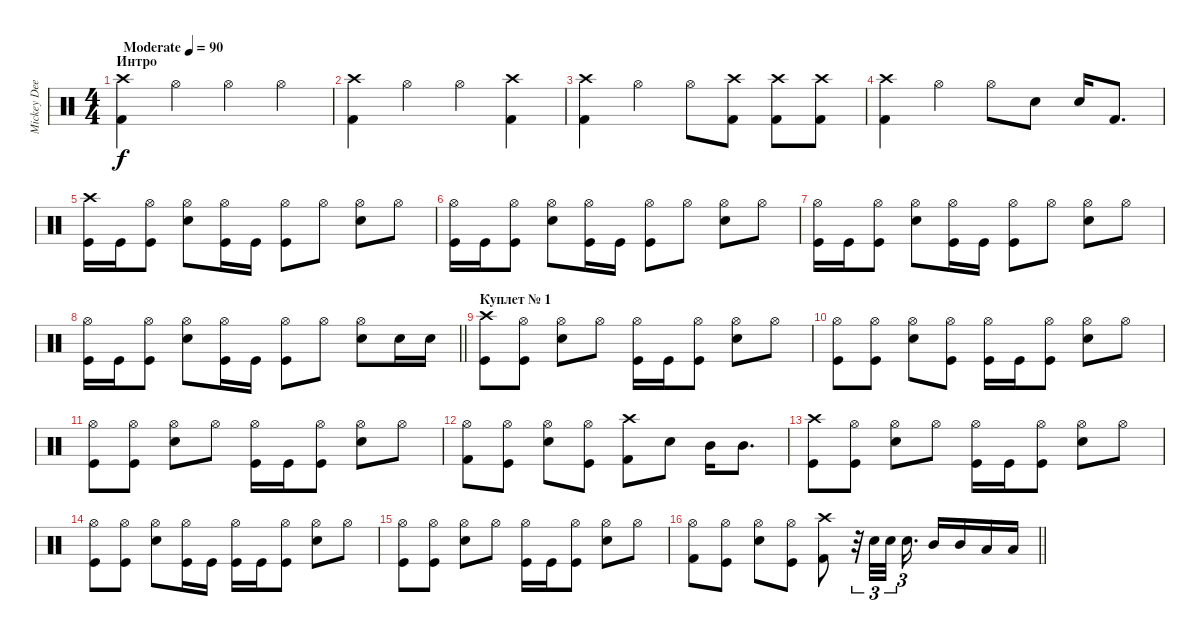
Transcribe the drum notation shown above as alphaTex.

\track ("Mickey Dee" "Mickey Dee") {instrument percussion}
\staff {score}
\articulation defaults
\ts (4 4)
\section ("" "Интро")
\tempo (90 "Moderate")
\clef neutral
\ks c
("Crash high (hit)" "Kick (hit) 2").4{dy f} "Hi-Hat (open)".4 "Hi-Hat (open)".4 "Hi-Hat (open)".4 |
("Crash high (hit)" "Kick (hit) 2").4 "Hi-Hat (open)".4 "Hi-Hat (open)".4 ("Crash high (hit)" "Kick (hit) 2").4 |
("Crash high (hit)" "Kick (hit) 2").4 "Hi-Hat (open)".4 "Hi-Hat (open)".8 ("Crash high (hit)" "Kick (hit) 2").8 ("Crash high (hit)" "Kick (hit) 2").8 ("Crash high (hit)" "Kick (hit) 2").8 |
("Crash high (hit)" "Kick (hit) 2").4 "Hi-Hat (open)".4 "Hi-Hat (open)".8 "Snare (hit) 2".8 "Snare (hit) 2".16 "Kick (hit) 2".8{d} |
("Kick (hit)" "Crash high (hit)").16 "Kick (hit)".16 ("Kick (hit)" "Hi-Hat (open)").8 ("Snare (hit) 2" "Hi-Hat (open)").8 ("Kick (hit)" "Hi-Hat (open)").16 "Kick (hit)".16 ("Kick (hit)" "Hi-Hat (open)").8 "Hi-Hat (open)".8 ("Hi-Hat (open)" "Snare (hit) 2").8 "Hi-Hat (open)".8 |
("Kick (hit)" "Hi-Hat (open)").16 "Kick (hit)".16 ("Kick (hit)" "Hi-Hat (open)").8 ("Snare (hit) 2" "Hi-Hat (open)").8 ("Kick (hit)" "Hi-Hat (open)").16 "Kick (hit)".16 ("Kick (hit)" "Hi-Hat (open)").8 "Hi-Hat (open)".8 ("Hi-Hat (open)" "Snare (hit) 2").8 "Hi-Hat (open)".8 |
("Kick (hit)" "Hi-Hat (open)").16 "Kick (hit)".16 ("Kick (hit)" "Hi-Hat (open)").8 ("Snare (hit) 2" "Hi-Hat (open)").8 ("Kick (hit)" "Hi-Hat (open)").16 "Kick (hit)".16 ("Kick (hit)" "Hi-Hat (open)").8 "Hi-Hat (open)".8 ("Hi-Hat (open)" "Snare (hit) 2").8 "Hi-Hat (open)".8 |
\barLineRight lightlight
("Kick (hit)" "Hi-Hat (open)").16 "Kick (hit)".16 ("Kick (hit)" "Hi-Hat (open)").8 ("Snare (hit) 2" "Hi-Hat (open)").8 ("Kick (hit)" "Hi-Hat (open)").16 "Kick (hit)".16 ("Kick (hit)" "Hi-Hat (open)").8 "Hi-Hat (open)".8 ("Hi-Hat (open)" "Snare (hit) 2").8 "Snare (hit) 2".16 "Snare (hit) 2".16 |
\section ("" "Куплет № 1")
("Kick (hit)" "Crash high (hit)").8 ("Kick (hit)" "Hi-Hat (open)").8 ("Hi-Hat (open)" "Snare (hit) 2").8 "Hi-Hat (open)".8 ("Kick (hit)" "Hi-Hat (open)").16 "Kick (hit)".16 ("Kick (hit)" "Hi-Hat (open)").8 ("Hi-Hat (open)" "Snare (hit) 2").8 "Hi-Hat (open)".8 |
("Kick (hit)" "Hi-Hat (open)").8 ("Kick (hit)" "Hi-Hat (open)").8 ("Hi-Hat (open)" "Snare (hit) 2").8 ("Hi-Hat (open)" "Kick (hit)").8 ("Kick (hit)" "Hi-Hat (open)").16 "Kick (hit)".16 ("Kick (hit)" "Hi-Hat (open)").8 ("Hi-Hat (open)" "Snare (hit) 2").8 "Hi-Hat (open)".8 |
("Kick (hit)" "Hi-Hat (open)").8 ("Kick (hit)" "Hi-Hat (open)").8 ("Hi-Hat (open)" "Snare (hit) 2").8 "Hi-Hat (open)".8 ("Kick (hit)" "Hi-Hat (open)").16 "Kick (hit)".16 ("Kick (hit)" "Hi-Hat (open)").8 ("Hi-Hat (open)" "Snare (hit) 2").8 "Hi-Hat (open)".8 |
("Hi-Hat (open)" "Kick (hit) 2").8 ("Kick (hit)" "Hi-Hat (open)").8 ("Hi-Hat (open)" "Snare (hit) 2").8 ("Kick (hit)" "Hi-Hat (open)").8 ("Crash high (hit)" "Kick (hit) 2").8 "Snare (hit) 2".8 "Mid Tom (hit)".16 "Mid Tom (hit)".8{d} |
("Kick (hit)" "Crash high (hit)").8 ("Kick (hit)" "Hi-Hat (open)").8 ("Hi-Hat (open)" "Snare (hit) 2").8 "Hi-Hat (open)".8 ("Kick (hit)" "Hi-Hat (open)").16 "Kick (hit)".16 ("Kick (hit)" "Hi-Hat (open)").8 ("Hi-Hat (open)" "Snare (hit) 2").8 "Hi-Hat (open)".8 |
("Kick (hit)" "Hi-Hat (open)").8 ("Kick (hit)" "Hi-Hat (open)").8 ("Hi-Hat (open)" "Snare (hit) 2").8 ("Hi-Hat (open)" "Kick (hit)").16 "Kick (hit)".16 ("Kick (hit)" "Hi-Hat (open)").16 "Kick (hit)".16 ("Kick (hit)" "Hi-Hat (open)").8 ("Snare (hit) 2" "Hi-Hat (open)").8 "Hi-Hat (open)".8 |
("Kick (hit)" "Hi-Hat (open)").8 ("Kick (hit)" "Hi-Hat (open)").8 ("Hi-Hat (open)" "Snare (hit) 2").8 "Hi-Hat (open)".8 ("Kick (hit)" "Hi-Hat (open)").16 "Kick (hit)".16 ("Kick (hit)" "Hi-Hat (open)").8 ("Hi-Hat (open)" "Snare (hit) 2").8 "Hi-Hat (open)".8 |
\barLineRight lightlight
("Hi-Hat (open)" "Kick (hit) 2").8 ("Kick (hit)" "Hi-Hat (open)").8 ("Hi-Hat (open)" "Snare (hit) 2").8 ("Kick (hit)" "Hi-Hat (open)").8 ("Crash high (hit)" "Kick (hit) 2").8 r.32{tu (3 2)} "Snare (hit) 2".32{tu (3 2)} "Snare (hit) 2".32{tu (3 2) beam splitsecondary} "Snare (hit) 2".16{d tu (3 2)} "Mid Tom (hit)".16 "Mid Tom (hit)".16 "Low Tom (hit)".16 "Low Tom (hit)".16
